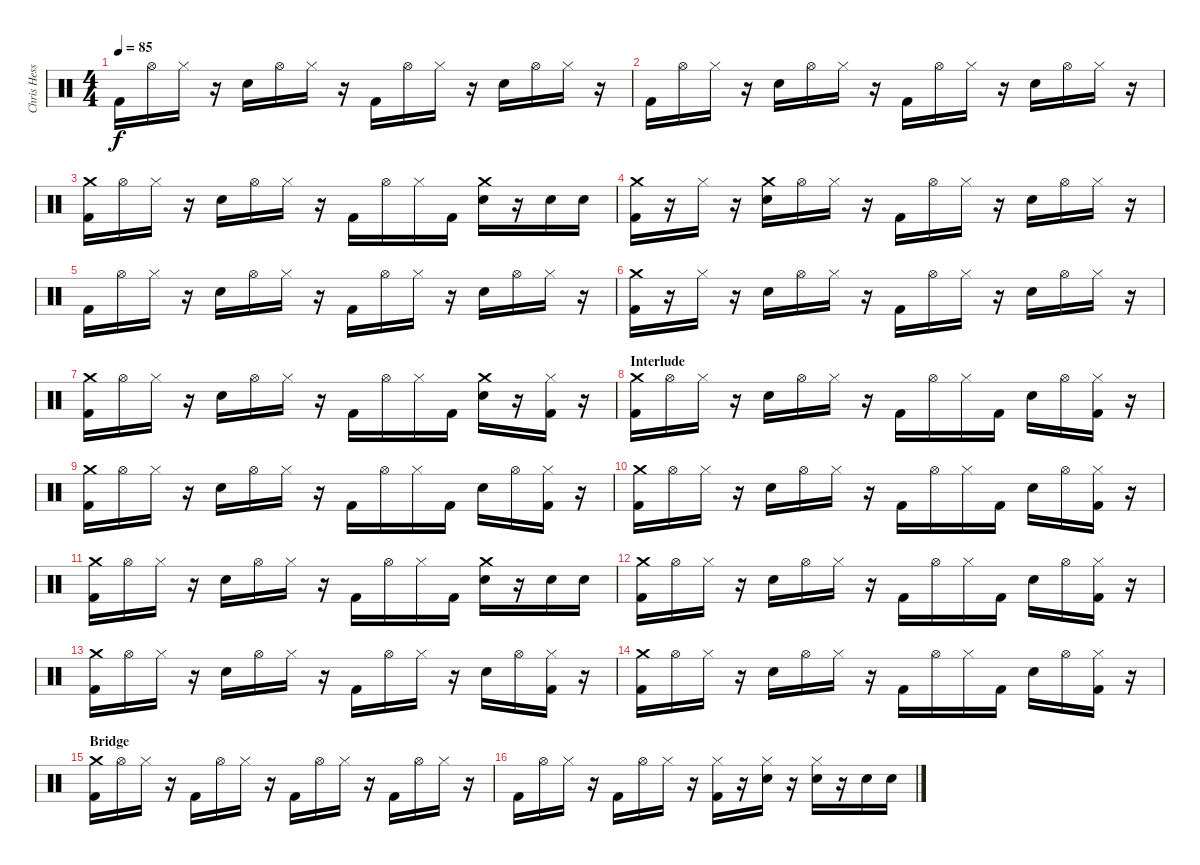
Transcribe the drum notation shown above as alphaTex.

\track ("Chris Hesse - Drums" "Chris Hess") {instrument percussion}
\staff {score}
\articulation defaults
\ts (4 4)
\tempo 85
\clef neutral
\ks c "Kick (hit) 2".16{dy f} "Hi-Hat (open)".16 "Hi-Hat (closed)".16
r.16 "Snare (hit) 2".16 "Hi-Hat (open)".16 "Hi-Hat (closed)".16 r.16 "Kick (hit) 2".16 "Hi-Hat (open)".16 "Hi-Hat (closed)".16 r.16 "Snare (hit) 2".16 "Hi-Hat (open)".16 "Hi-Hat (closed)".16 r.16 |
"Kick (hit) 2".16 "Hi-Hat (open)".16 "Hi-Hat (closed)".16 r.16 "Snare (hit) 2".16 "Hi-Hat (open)".16 "Hi-Hat (closed)".16 r.16 "Kick (hit) 2".16 "Hi-Hat (open)".16 "Hi-Hat (closed)".16 r.16 "Snare (hit) 2".16 "Hi-Hat (open)".16 "Hi-Hat (closed)".16 r.16 |
("Crash medium (hit)" "Kick (hit) 2").16 "Hi-Hat (open)".16 "Hi-Hat (closed)".16 r.16 "Snare (hit) 2".16 "Hi-Hat (open)".16 "Hi-Hat (closed)".16 r.16 "Kick (hit) 2".16 "Hi-Hat (open)".16 "Hi-Hat (closed)".16 "Kick (hit) 2".16 ("Crash medium (hit)" "Snare (hit) 2").16 r.16 "Snare (hit) 2".16 "Snare (hit) 2".16 |
("Crash medium (hit)" "Kick (hit) 2").16 r.16 "Hi-Hat (closed)".16 r.16 ("Crash medium (hit)" "Snare (hit) 2").16 "Hi-Hat (open)".16 "Hi-Hat (closed)".16 r.16 "Kick (hit) 2".16 "Hi-Hat (open)".16 "Hi-Hat (closed)".16 r.16 "Snare (hit) 2".16 "Hi-Hat (open)".16 "Hi-Hat (closed)".16 r.16 |
"Kick (hit) 2".16 "Hi-Hat (open)".16 "Hi-Hat (closed)".16 r.16 "Snare (hit) 2".16 "Hi-Hat (open)".16 "Hi-Hat (closed)".16 r.16 "Kick (hit) 2".16 "Hi-Hat (open)".16 "Hi-Hat (closed)".16 r.16 "Snare (hit) 2".16 "Hi-Hat (open)".16 "Hi-Hat (closed)".16 r.16 |
("Crash medium (hit)" "Kick (hit) 2").16 r.16 "Hi-Hat (closed)".16 r.16 "Snare (hit) 2".16 "Hi-Hat (open)".16 "Hi-Hat (closed)".16 r.16 "Kick (hit) 2".16 "Hi-Hat (open)".16 "Hi-Hat (closed)".16 r.16 "Snare (hit) 2".16 "Hi-Hat (open)".16 "Hi-Hat (closed)".16 r.16 |
("Crash medium (hit)" "Kick (hit) 2").16 "Hi-Hat (open)".16 "Hi-Hat (closed)".16 r.16 "Snare (hit) 2".16 "Hi-Hat (open)".16 "Hi-Hat (closed)".16 r.16 "Kick (hit) 2".16 "Hi-Hat (open)".16 "Hi-Hat (closed)".16 "Kick (hit) 2".16 ("Crash medium (hit)" "Snare (hit) 2").16 r.16 ("Hi-Hat (closed)" "Kick (hit) 2").16 r.16 |
\section ("" "Interlude")
("Crash medium (hit)" "Kick (hit) 2").16 "Hi-Hat (open)".16 "Hi-Hat (closed)".16 r.16 "Snare (hit) 2".16 "Hi-Hat (open)".16 "Hi-Hat (closed)".16 r.16 "Kick (hit) 2".16 "Hi-Hat (open)".16 "Hi-Hat (closed)".16 "Kick (hit) 2".16 "Snare (hit) 2".16 "Hi-Hat (open)".16 ("Hi-Hat (closed)" "Kick (hit) 2").16 r.16 |
("Crash medium (hit)" "Kick (hit) 2").16 "Hi-Hat (open)".16 "Hi-Hat (closed)".16 r.16 "Snare (hit) 2".16 "Hi-Hat (open)".16 "Hi-Hat (closed)".16 r.16 "Kick (hit) 2".16 "Hi-Hat (open)".16 "Hi-Hat (closed)".16 "Kick (hit) 2".16 "Snare (hit) 2".16 "Hi-Hat (open)".16 ("Hi-Hat (closed)" "Kick (hit) 2").16 r.16 |
("Crash medium (hit)" "Kick (hit) 2").16 "Hi-Hat (open)".16 "Hi-Hat (closed)".16 r.16 "Snare (hit) 2".16 "Hi-Hat (open)".16 "Hi-Hat (closed)".16 r.16 "Kick (hit) 2".16 "Hi-Hat (open)".16 "Hi-Hat (closed)".16 "Kick (hit) 2".16 "Snare (hit) 2".16 "Hi-Hat (open)".16 ("Hi-Hat (closed)" "Kick (hit) 2").16 r.16 |
("Crash medium (hit)" "Kick (hit) 2").16 "Hi-Hat (open)".16 "Hi-Hat (closed)".16 r.16 "Snare (hit) 2".16 "Hi-Hat (open)".16 "Hi-Hat (closed)".16 r.16 "Kick (hit) 2".16 "Hi-Hat (open)".16 "Hi-Hat (closed)".16 "Kick (hit) 2".16 ("Crash medium (hit)" "Snare (hit) 2").16 r.16 "Snare (hit) 2".16 "Snare (hit) 2".16 |
("Crash medium (hit)" "Kick (hit) 2").16 "Hi-Hat (open)".16 "Hi-Hat (closed)".16 r.16 "Snare (hit) 2".16 "Hi-Hat (open)".16 "Hi-Hat (closed)".16 r.16 "Kick (hit) 2".16 "Hi-Hat (open)".16 "Hi-Hat (closed)".16 "Kick (hit) 2".16 "Snare (hit) 2".16 "Hi-Hat (open)".16 ("Hi-Hat (closed)" "Kick (hit) 2").16 r.16 |
("Crash medium (hit)" "Kick (hit) 2").16 "Hi-Hat (open)".16 "Hi-Hat (closed)".16 r.16 "Snare (hit) 2".16 "Hi-Hat (open)".16 "Hi-Hat (closed)".16 r.16 "Kick (hit) 2".16 "Hi-Hat (open)".16 "Hi-Hat (closed)".16 r.16 "Snare (hit) 2".16 "Hi-Hat (open)".16 ("Hi-Hat (closed)" "Kick (hit) 2").16 r.16 |
("Crash medium (hit)" "Kick (hit) 2").16 "Hi-Hat (open)".16 "Hi-Hat (closed)".16 r.16 "Snare (hit) 2".16 "Hi-Hat (open)".16 "Hi-Hat (closed)".16 r.16 "Kick (hit) 2".16 "Hi-Hat (open)".16 "Hi-Hat (closed)".16 "Kick (hit) 2".16 "Snare (hit) 2".16 "Hi-Hat (open)".16 ("Hi-Hat (closed)" "Kick (hit) 2").16 r.16 |
\section ("" "Bridge")
("Crash medium (hit)" "Kick (hit) 2").16 "Hi-Hat (open)".16 "Hi-Hat (closed)".16 r.16 "Kick (hit) 2".16 "Hi-Hat (open)".16 "Hi-Hat (closed)".16 r.16 "Kick (hit) 2".16 "Hi-Hat (open)".16 "Hi-Hat (closed)".16 r.16 "Kick (hit) 2".16 "Hi-Hat (open)".16 "Hi-Hat (closed)".16 r.16 |
"Kick (hit) 2".16 "Hi-Hat (open)".16 "Hi-Hat (closed)".16 r.16 "Kick (hit) 2".16 "Hi-Hat (open)".16 "Hi-Hat (closed)".16 r.16 ("Hi-Hat (closed)" "Kick (hit) 2").16 r.16 ("Hi-Hat (closed)" "Snare (hit) 2").16 r.16 ("Hi-Hat (closed)" "Snare (hit) 2").16 r.16 "Snare (hit) 2".16 "Snare (hit) 2".16
